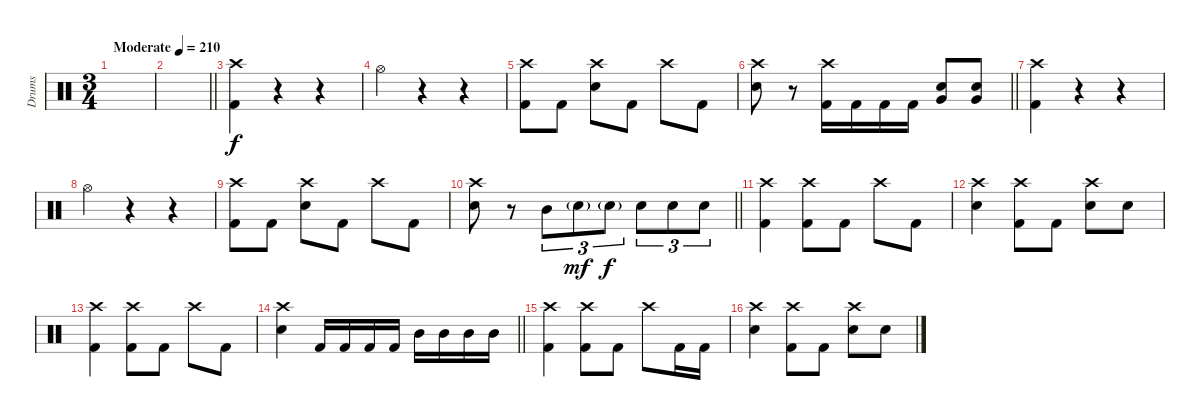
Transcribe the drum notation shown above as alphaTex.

\track ("Drums" "Drums") {instrument percussion}
\staff {score}
\articulation defaults
\ts (3 4)
\tempo (210 "Moderate")
\clef neutral
\ks c
|
\barLineRight lightlight
|
("Crash high (hit)" "Kick (hit) 2").4 r.4 r.4 |
"Hi-Hat (open)".4 r.4 r.4 |
("Crash high (hit)" "Kick (hit) 2").8 "Kick (hit) 2".8 ("Crash high (hit)" "Electric Snare (hit)").8 "Kick (hit) 2".8 "Crash high (hit)".8 "Kick (hit) 2".8 |
\barLineRight lightlight
("Crash high (hit)" "Electric Snare (hit)").8 r.8 ("Crash high (hit)" "Kick (hit) 2").16 "Kick (hit) 2".16 "Kick (hit) 2".16 "Kick (hit) 2".16 ("Electric Snare (hit)" "Very Low Tom (hit)").8 ("Electric Snare (hit)" "Very Low Tom (hit)").8 |
("Crash high (hit)" "Kick (hit) 2").4 r.4 r.4 |
"Hi-Hat (open)".4 r.4 r.4 |
("Crash high (hit)" "Kick (hit) 2").8 "Kick (hit) 2".8 ("Crash high (hit)" "Electric Snare (hit)").8 "Kick (hit) 2".8 "Crash high (hit)".8 "Kick (hit) 2".8 |
\barLineRight lightlight
("Crash high (hit)" "Electric Snare (hit)").8 r.8 "Mid Tom (hit)".8{tu (3 2)} "Electric Snare (hit)"{g}.8{tu (3 2) dy mf} "Electric Snare (hit)"{g}.8{tu (3 2) dy f} "Electric Snare (hit)".8{tu (3 2)} "Electric Snare (hit)".8{tu (3 2)} "Electric Snare (hit)".8{tu (3 2)} |
("Crash high (hit)" "Kick (hit) 2").4 ("Crash high (hit)" "Kick (hit) 2").8 "Kick (hit) 2".8 "Crash high (hit)".8 "Kick (hit) 2".8 |
("Crash high (hit)" "Electric Snare (hit)").4 ("Crash high (hit)" "Kick (hit) 2").8 "Kick (hit) 2".8 ("Crash high (hit)" "Electric Snare (hit)").8 "Electric Snare (hit)".8 |
("Crash high (hit)" "Kick (hit) 2").4 ("Crash high (hit)" "Kick (hit) 2").8 "Kick (hit) 2".8 "Crash high (hit)".8 "Kick (hit) 2".8 |
\barLineRight lightlight
("Crash high (hit)" "Electric Snare (hit)").4 "Kick (hit) 2".16 "Kick (hit) 2".16 "Kick (hit) 2".16 "Kick (hit) 2".16 "Mid Tom (hit)".16 "Mid Tom (hit)".16 "Mid Tom (hit)".16 "Mid Tom (hit)".16 |
("Crash high (hit)" "Kick (hit) 2").4 ("Crash high (hit)" "Kick (hit) 2").8 "Kick (hit) 2".8 "Crash high (hit)".8 "Kick (hit) 2".16 "Kick (hit) 2".16 |
("Crash high (hit)" "Electric Snare (hit)").4 ("Crash high (hit)" "Kick (hit) 2").8 "Kick (hit) 2".8 ("Crash high (hit)" "Electric Snare (hit)").8 "Electric Snare (hit)".8
